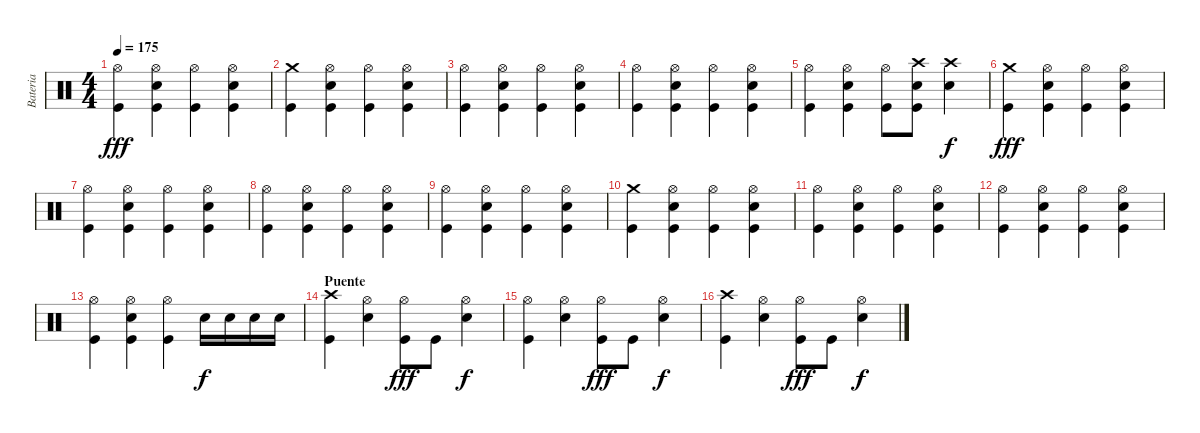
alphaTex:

\track ("Bateria" "Bateria") {instrument percussion}
\staff {score}
\articulation defaults
\ts (4 4)
\tempo 175
\clef neutral
\ks c
("Hi-Hat (open)" "Kick (hit)").4{dy fff} ("Hi-Hat (open)" "Electric Snare (hit)" "Kick (hit)").4 ("Hi-Hat (open)" "Kick (hit)").4 ("Hi-Hat (open)" "Electric Snare (hit)" "Kick (hit)").4 |
("Crash medium (hit)" "Kick (hit)").4 ("Hi-Hat (open)" "Electric Snare (hit)" "Kick (hit)").4 ("Hi-Hat (open)" "Kick (hit)").4 ("Hi-Hat (open)" "Electric Snare (hit)" "Kick (hit)").4 |
("Hi-Hat (open)" "Kick (hit)").4 ("Hi-Hat (open)" "Electric Snare (hit)" "Kick (hit)").4 ("Hi-Hat (open)" "Kick (hit)").4 ("Hi-Hat (open)" "Electric Snare (hit)" "Kick (hit)").4 |
("Hi-Hat (open)" "Kick (hit)").4 ("Hi-Hat (open)" "Electric Snare (hit)" "Kick (hit)").4 ("Hi-Hat (open)" "Kick (hit)").4 ("Hi-Hat (open)" "Electric Snare (hit)" "Kick (hit)").4 |
("Hi-Hat (open)" "Kick (hit)").4 ("Hi-Hat (open)" "Electric Snare (hit)" "Kick (hit)").4 ("Hi-Hat (open)" "Kick (hit)").8 ("Crash high (hit)" "Electric Snare (hit)" "Kick (hit)").8 ("Crash high (hit)" "Electric Snare (hit)").4{dy f} |
("Crash medium (hit)" "Kick (hit)").4{dy fff} ("Hi-Hat (open)" "Electric Snare (hit)" "Kick (hit)").4 ("Hi-Hat (open)" "Kick (hit)").4 ("Hi-Hat (open)" "Electric Snare (hit)" "Kick (hit)").4 |
("Hi-Hat (open)" "Kick (hit)").4 ("Hi-Hat (open)" "Electric Snare (hit)" "Kick (hit)").4 ("Hi-Hat (open)" "Kick (hit)").4 ("Hi-Hat (open)" "Electric Snare (hit)" "Kick (hit)").4 |
("Hi-Hat (open)" "Kick (hit)").4 ("Hi-Hat (open)" "Electric Snare (hit)" "Kick (hit)").4 ("Hi-Hat (open)" "Kick (hit)").4 ("Hi-Hat (open)" "Electric Snare (hit)" "Kick (hit)").4 |
("Hi-Hat (open)" "Kick (hit)").4 ("Hi-Hat (open)" "Electric Snare (hit)" "Kick (hit)").4 ("Hi-Hat (open)" "Kick (hit)").4 ("Hi-Hat (open)" "Electric Snare (hit)" "Kick (hit)").4 |
("Crash medium (hit)" "Kick (hit)").4 ("Hi-Hat (open)" "Electric Snare (hit)" "Kick (hit)").4 ("Hi-Hat (open)" "Kick (hit)").4 ("Hi-Hat (open)" "Electric Snare (hit)" "Kick (hit)").4 |
("Hi-Hat (open)" "Kick (hit)").4 ("Hi-Hat (open)" "Electric Snare (hit)" "Kick (hit)").4 ("Hi-Hat (open)" "Kick (hit)").4 ("Hi-Hat (open)" "Electric Snare (hit)" "Kick (hit)").4 |
("Hi-Hat (open)" "Kick (hit)").4 ("Hi-Hat (open)" "Electric Snare (hit)" "Kick (hit)").4 ("Hi-Hat (open)" "Kick (hit)").4 ("Hi-Hat (open)" "Electric Snare (hit)" "Kick (hit)").4 |
("Hi-Hat (open)" "Kick (hit)").4 ("Hi-Hat (open)" "Electric Snare (hit)" "Kick (hit)").4 ("Hi-Hat (open)" "Kick (hit)").4 "Electric Snare (hit)".16{dy f} "Electric Snare (hit)".16 "Electric Snare (hit)".16 "Electric Snare (hit)".16 |
\section ("" "Puente")
("Crash high (hit)" "Kick (hit)").4 ("Hi-Hat (open)" "Electric Snare (hit)").4 ("Hi-Hat (open)" "Kick (hit)").8{dy fff} "Kick (hit)".8 ("Hi-Hat (open)" "Electric Snare (hit)").4{dy f} |
("Hi-Hat (open)" "Kick (hit)").4 ("Hi-Hat (open)" "Electric Snare (hit)").4 ("Hi-Hat (open)" "Kick (hit)").8{dy fff} "Kick (hit)".8 ("Hi-Hat (open)" "Electric Snare (hit)").4{dy f} |
("Crash high (hit)" "Kick (hit)").4 ("Hi-Hat (open)" "Electric Snare (hit)").4 ("Hi-Hat (open)" "Kick (hit)").8{dy fff} "Kick (hit)".8 ("Hi-Hat (open)" "Electric Snare (hit)").4{dy f}
